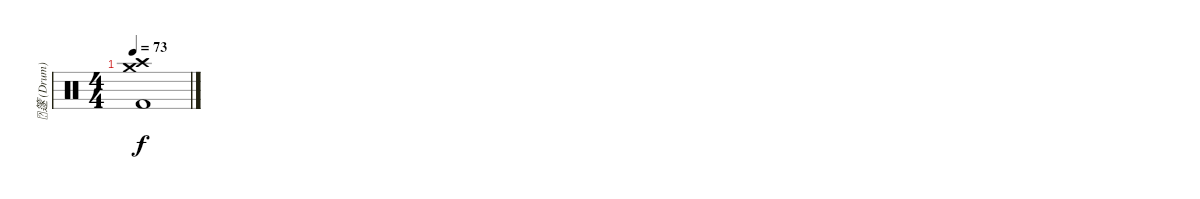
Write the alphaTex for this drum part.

\track ("篴 (Drum)" "篴 (Drum)") {instrument percussion}
\staff {score}
\articulation defaults
\ts (4 4)
\tempo 73
\clef neutral
\ks c
("Crash high (hit)" "Crash medium (hit)" "Kick (hit) 2").1{dy f}
